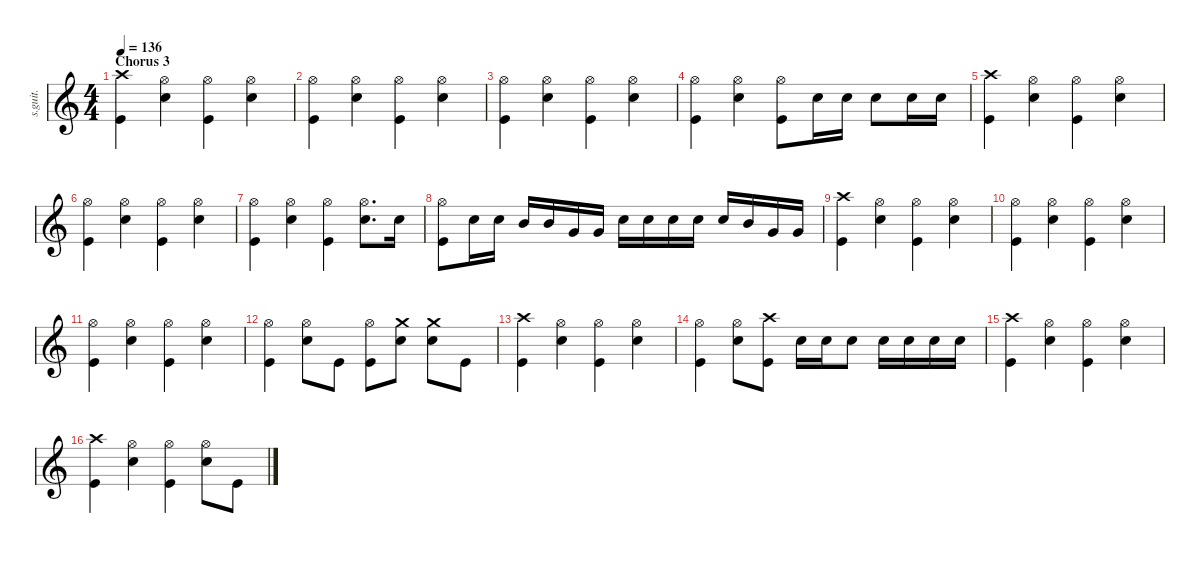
\defaultSystemsLayout 4
\hideDynamics
\bracketExtendMode nobrackets
\track ("Ilan Rubin" "s.guit.") {instrument percussion}
\staff {score}
\articulation defaults
\ts (4 4)
\section ("" "Chorus 3")
\tempo 136
\clef g2
\ks c
("Crash high (hit)" "Kick (hit)").4{lyrics (0 "") lyrics (1 "") lyrics (2 "") lyrics (3 "") lyrics (4 "") dy f} ("Hi-Hat (open)" "Electric Snare (hit)").4{lyrics (0 "") lyrics (1 "") lyrics (2 "") lyrics (3 "") lyrics (4 "")} ("Hi-Hat (open)" "Kick (hit)").4{lyrics (0 "") lyrics (1 "") lyrics (2 "") lyrics (3 "") lyrics (4 "")} ("Hi-Hat (open)" "Electric Snare (hit)").4{lyrics (0 "") lyrics (1 "") lyrics (2 "") lyrics (3 "") lyrics (4 "")} |
("Hi-Hat (open)" "Kick (hit)").4{lyrics (0 "") lyrics (1 "") lyrics (2 "") lyrics (3 "") lyrics (4 "")} ("Hi-Hat (open)" "Electric Snare (hit)").4{lyrics (0 "") lyrics (1 "") lyrics (2 "") lyrics (3 "") lyrics (4 "")} ("Hi-Hat (open)" "Kick (hit)").4{lyrics (0 "") lyrics (1 "") lyrics (2 "") lyrics (3 "") lyrics (4 "")} ("Hi-Hat (open)" "Electric Snare (hit)").4{lyrics (0 "") lyrics (1 "") lyrics (2 "") lyrics (3 "") lyrics (4 "")} |
("Hi-Hat (open)" "Kick (hit)").4{lyrics (0 "") lyrics (1 "") lyrics (2 "") lyrics (3 "") lyrics (4 "")} ("Hi-Hat (open)" "Electric Snare (hit)").4{lyrics (0 "") lyrics (1 "") lyrics (2 "") lyrics (3 "") lyrics (4 "")} ("Hi-Hat (open)" "Kick (hit)").4{lyrics (0 "") lyrics (1 "") lyrics (2 "") lyrics (3 "") lyrics (4 "")} ("Hi-Hat (open)" "Electric Snare (hit)").4{lyrics (0 "") lyrics (1 "") lyrics (2 "") lyrics (3 "") lyrics (4 "")} |
("Hi-Hat (open)" "Kick (hit)").4{lyrics (0 "") lyrics (1 "") lyrics (2 "") lyrics (3 "") lyrics (4 "")} ("Hi-Hat (open)" "Electric Snare (hit)").4{lyrics (0 "") lyrics (1 "") lyrics (2 "") lyrics (3 "") lyrics (4 "")} ("Hi-Hat (open)" "Kick (hit)").8{lyrics (0 "") lyrics (1 "") lyrics (2 "") lyrics (3 "") lyrics (4 "")} "Electric Snare (hit)".16{lyrics (0 "") lyrics (1 "") lyrics (2 "") lyrics (3 "") lyrics (4 "")} "Electric Snare (hit)".16{lyrics (0 "") lyrics (1 "") lyrics (2 "") lyrics (3 "") lyrics (4 "")} "Electric Snare (hit)".8{lyrics (0 "") lyrics (1 "") lyrics (2 "") lyrics (3 "") lyrics (4 "")} "Electric Snare (hit)".16{lyrics (0 "") lyrics (1 "") lyrics (2 "") lyrics (3 "") lyrics (4 "")} "Electric Snare (hit)".16{lyrics (0 "") lyrics (1 "") lyrics (2 "") lyrics (3 "") lyrics (4 "")} |
("Crash high (hit)" "Kick (hit)").4{lyrics (0 "") lyrics (1 "") lyrics (2 "") lyrics (3 "") lyrics (4 "")} ("Hi-Hat (open)" "Electric Snare (hit)").4{lyrics (0 "") lyrics (1 "") lyrics (2 "") lyrics (3 "") lyrics (4 "")} ("Hi-Hat (open)" "Kick (hit)").4{lyrics (0 "") lyrics (1 "") lyrics (2 "") lyrics (3 "") lyrics (4 "")} ("Hi-Hat (open)" "Electric Snare (hit)").4{lyrics (0 "") lyrics (1 "") lyrics (2 "") lyrics (3 "") lyrics (4 "")} |
("Hi-Hat (open)" "Kick (hit)").4{lyrics (0 "") lyrics (1 "") lyrics (2 "") lyrics (3 "") lyrics (4 "")} ("Hi-Hat (open)" "Electric Snare (hit)").4{lyrics (0 "") lyrics (1 "") lyrics (2 "") lyrics (3 "") lyrics (4 "")} ("Hi-Hat (open)" "Kick (hit)").4{lyrics (0 "") lyrics (1 "") lyrics (2 "") lyrics (3 "") lyrics (4 "")} ("Hi-Hat (open)" "Electric Snare (hit)").4{lyrics (0 "") lyrics (1 "") lyrics (2 "") lyrics (3 "") lyrics (4 "")} |
("Hi-Hat (open)" "Kick (hit)").4{lyrics (0 "") lyrics (1 "") lyrics (2 "") lyrics (3 "") lyrics (4 "")} ("Hi-Hat (open)" "Electric Snare (hit)").4{lyrics (0 "") lyrics (1 "") lyrics (2 "") lyrics (3 "") lyrics (4 "")} ("Hi-Hat (open)" "Kick (hit)").4{lyrics (0 "") lyrics (1 "") lyrics (2 "") lyrics (3 "") lyrics (4 "")} ("Hi-Hat (open)" "Electric Snare (hit)").8{d lyrics (0 "") lyrics (1 "") lyrics (2 "") lyrics (3 "") lyrics (4 "")} "Electric Snare (hit)".16{lyrics (0 "") lyrics (1 "") lyrics (2 "") lyrics (3 "") lyrics (4 "")} |
("Hi-Hat (open)" "Kick (hit)").8{lyrics (0 "") lyrics (1 "") lyrics (2 "") lyrics (3 "") lyrics (4 "")} "Electric Snare (hit)".16{lyrics (0 "") lyrics (1 "") lyrics (2 "") lyrics (3 "") lyrics (4 "")} "Electric Snare (hit)".16{lyrics (0 "") lyrics (1 "") lyrics (2 "") lyrics (3 "") lyrics (4 "")} "Mid Tom (hit)".16{lyrics (0 "") lyrics (1 "") lyrics (2 "") lyrics (3 "") lyrics (4 "")} "Mid Tom (hit)".16{lyrics (0 "") lyrics (1 "") lyrics (2 "") lyrics (3 "") lyrics (4 "")} "Very Low Tom (hit)".16{lyrics (0 "") lyrics (1 "") lyrics (2 "") lyrics (3 "") lyrics (4 "")} "Very Low Tom (hit)".16{lyrics (0 "") lyrics (1 "") lyrics (2 "") lyrics (3 "") lyrics (4 "")} "Electric Snare (hit)".16{lyrics (0 "") lyrics (1 "") lyrics (2 "") lyrics (3 "") lyrics (4 "")} "Electric Snare (hit)".16{lyrics (0 "") lyrics (1 "") lyrics (2 "") lyrics (3 "") lyrics (4 "")} "Electric Snare (hit)".16{lyrics (0 "") lyrics (1 "") lyrics (2 "") lyrics (3 "") lyrics (4 "")} "Electric Snare (hit)".16{lyrics (0 "") lyrics (1 "") lyrics (2 "") lyrics (3 "") lyrics (4 "")} "Electric Snare (hit)".16{lyrics (0 "") lyrics (1 "") lyrics (2 "") lyrics (3 "") lyrics (4 "")} "Mid Tom (hit)".16{lyrics (0 "") lyrics (1 "") lyrics (2 "") lyrics (3 "") lyrics (4 "")} "Very Low Tom (hit)".16{lyrics (0 "") lyrics (1 "") lyrics (2 "") lyrics (3 "") lyrics (4 "")} "Very Low Tom (hit)".16{lyrics (0 "") lyrics (1 "") lyrics (2 "") lyrics (3 "") lyrics (4 "")} |
("Crash high (hit)" "Kick (hit)").4{lyrics (0 "") lyrics (1 "") lyrics (2 "") lyrics (3 "") lyrics (4 "")} ("Hi-Hat (open)" "Electric Snare (hit)").4{lyrics (0 "") lyrics (1 "") lyrics (2 "") lyrics (3 "") lyrics (4 "")} ("Hi-Hat (open)" "Kick (hit)").4{lyrics (0 "") lyrics (1 "") lyrics (2 "") lyrics (3 "") lyrics (4 "")} ("Hi-Hat (open)" "Electric Snare (hit)").4{lyrics (0 "") lyrics (1 "") lyrics (2 "") lyrics (3 "") lyrics (4 "")} |
("Hi-Hat (open)" "Kick (hit)").4{lyrics (0 "") lyrics (1 "") lyrics (2 "") lyrics (3 "") lyrics (4 "")} ("Hi-Hat (open)" "Electric Snare (hit)").4{lyrics (0 "") lyrics (1 "") lyrics (2 "") lyrics (3 "") lyrics (4 "")} ("Hi-Hat (open)" "Kick (hit)").4{lyrics (0 "") lyrics (1 "") lyrics (2 "") lyrics (3 "") lyrics (4 "")} ("Hi-Hat (open)" "Electric Snare (hit)").4{lyrics (0 "") lyrics (1 "") lyrics (2 "") lyrics (3 "") lyrics (4 "")} |
("Hi-Hat (open)" "Kick (hit)").4{lyrics (0 "") lyrics (1 "") lyrics (2 "") lyrics (3 "") lyrics (4 "")} ("Hi-Hat (open)" "Electric Snare (hit)").4{lyrics (0 "") lyrics (1 "") lyrics (2 "") lyrics (3 "") lyrics (4 "")} ("Hi-Hat (open)" "Kick (hit)").4{lyrics (0 "") lyrics (1 "") lyrics (2 "") lyrics (3 "") lyrics (4 "")} ("Hi-Hat (open)" "Electric Snare (hit)").4{lyrics (0 "") lyrics (1 "") lyrics (2 "") lyrics (3 "") lyrics (4 "")} |
("Hi-Hat (open)" "Kick (hit)").4{lyrics (0 "") lyrics (1 "") lyrics (2 "") lyrics (3 "") lyrics (4 "")} ("Hi-Hat (open)" "Electric Snare (hit)").8{lyrics (0 "") lyrics (1 "") lyrics (2 "") lyrics (3 "") lyrics (4 "")} "Kick (hit)".8{lyrics (0 "") lyrics (1 "") lyrics (2 "") lyrics (3 "") lyrics (4 "") dy ff} ("Hi-Hat (open)" "Kick (hit)").8{lyrics (0 "") lyrics (1 "") lyrics (2 "") lyrics (3 "") lyrics (4 "")} ("Crash medium (hit)" "Electric Snare (hit)").8{lyrics (0 "") lyrics (1 "") lyrics (2 "") lyrics (3 "") lyrics (4 "") dy f} ("Crash medium (hit)" "Electric Snare (hit)").8{lyrics (0 "") lyrics (1 "") lyrics (2 "") lyrics (3 "") lyrics (4 "")} "Kick (hit)".8{lyrics (0 "") lyrics (1 "") lyrics (2 "") lyrics (3 "") lyrics (4 "") dy ff} |
("Crash high (hit)" "Kick (hit)").4{lyrics (0 "") lyrics (1 "") lyrics (2 "") lyrics (3 "") lyrics (4 "")} ("Hi-Hat (open)" "Electric Snare (hit)").4{lyrics (0 "") lyrics (1 "") lyrics (2 "") lyrics (3 "") lyrics (4 "") dy f} ("Hi-Hat (open)" "Kick (hit)").4{lyrics (0 "") lyrics (1 "") lyrics (2 "") lyrics (3 "") lyrics (4 "")} ("Hi-Hat (open)" "Electric Snare (hit)").4{lyrics (0 "") lyrics (1 "") lyrics (2 "") lyrics (3 "") lyrics (4 "")} |
("Hi-Hat (open)" "Kick (hit)").4{lyrics (0 "") lyrics (1 "") lyrics (2 "") lyrics (3 "") lyrics (4 "")} ("Hi-Hat (open)" "Electric Snare (hit)").8{lyrics (0 "") lyrics (1 "") lyrics (2 "") lyrics (3 "") lyrics (4 "")} ("Crash high (hit)" "Kick (hit)").8{lyrics (0 "") lyrics (1 "") lyrics (2 "") lyrics (3 "") lyrics (4 "")} "Electric Snare (hit)".16{lyrics (0 "") lyrics (1 "") lyrics (2 "") lyrics (3 "") lyrics (4 "")} "Electric Snare (hit)".16{lyrics (0 "") lyrics (1 "") lyrics (2 "") lyrics (3 "") lyrics (4 "")} "Electric Snare (hit)".8{lyrics (0 "") lyrics (1 "") lyrics (2 "") lyrics (3 "") lyrics (4 "")} "Electric Snare (hit)".16{lyrics (0 "") lyrics (1 "") lyrics (2 "") lyrics (3 "") lyrics (4 "")} "Electric Snare (hit)".16{lyrics (0 "") lyrics (1 "") lyrics (2 "") lyrics (3 "") lyrics (4 "")} "Electric Snare (hit)".16{lyrics (0 "") lyrics (1 "") lyrics (2 "") lyrics (3 "") lyrics (4 "")} "Electric Snare (hit)".16{lyrics (0 "") lyrics (1 "") lyrics (2 "") lyrics (3 "") lyrics (4 "")} |
("Crash high (hit)" "Kick (hit)").4{lyrics (0 "") lyrics (1 "") lyrics (2 "") lyrics (3 "") lyrics (4 "")} ("Hi-Hat (open)" "Electric Snare (hit)").4{lyrics (0 "") lyrics (1 "") lyrics (2 "") lyrics (3 "") lyrics (4 "")} ("Hi-Hat (open)" "Kick (hit)").4{lyrics (0 "") lyrics (1 "") lyrics (2 "") lyrics (3 "") lyrics (4 "")} ("Hi-Hat (open)" "Electric Snare (hit)").4{lyrics (0 "") lyrics (1 "") lyrics (2 "") lyrics (3 "") lyrics (4 "")} |
("Crash high (hit)" "Kick (hit)").4{lyrics (0 "") lyrics (1 "") lyrics (2 "") lyrics (3 "") lyrics (4 "")} ("Hi-Hat (open)" "Electric Snare (hit)").4{lyrics (0 "") lyrics (1 "") lyrics (2 "") lyrics (3 "") lyrics (4 "")} ("Hi-Hat (open)" "Kick (hit)").4{lyrics (0 "") lyrics (1 "") lyrics (2 "") lyrics (3 "") lyrics (4 "")} ("Hi-Hat (open)" "Electric Snare (hit)").8{lyrics (0 "") lyrics (1 "") lyrics (2 "") lyrics (3 "") lyrics (4 "")} "Kick (hit)".8{lyrics (0 "") lyrics (1 "") lyrics (2 "") lyrics (3 "") lyrics (4 "") dy ff}
